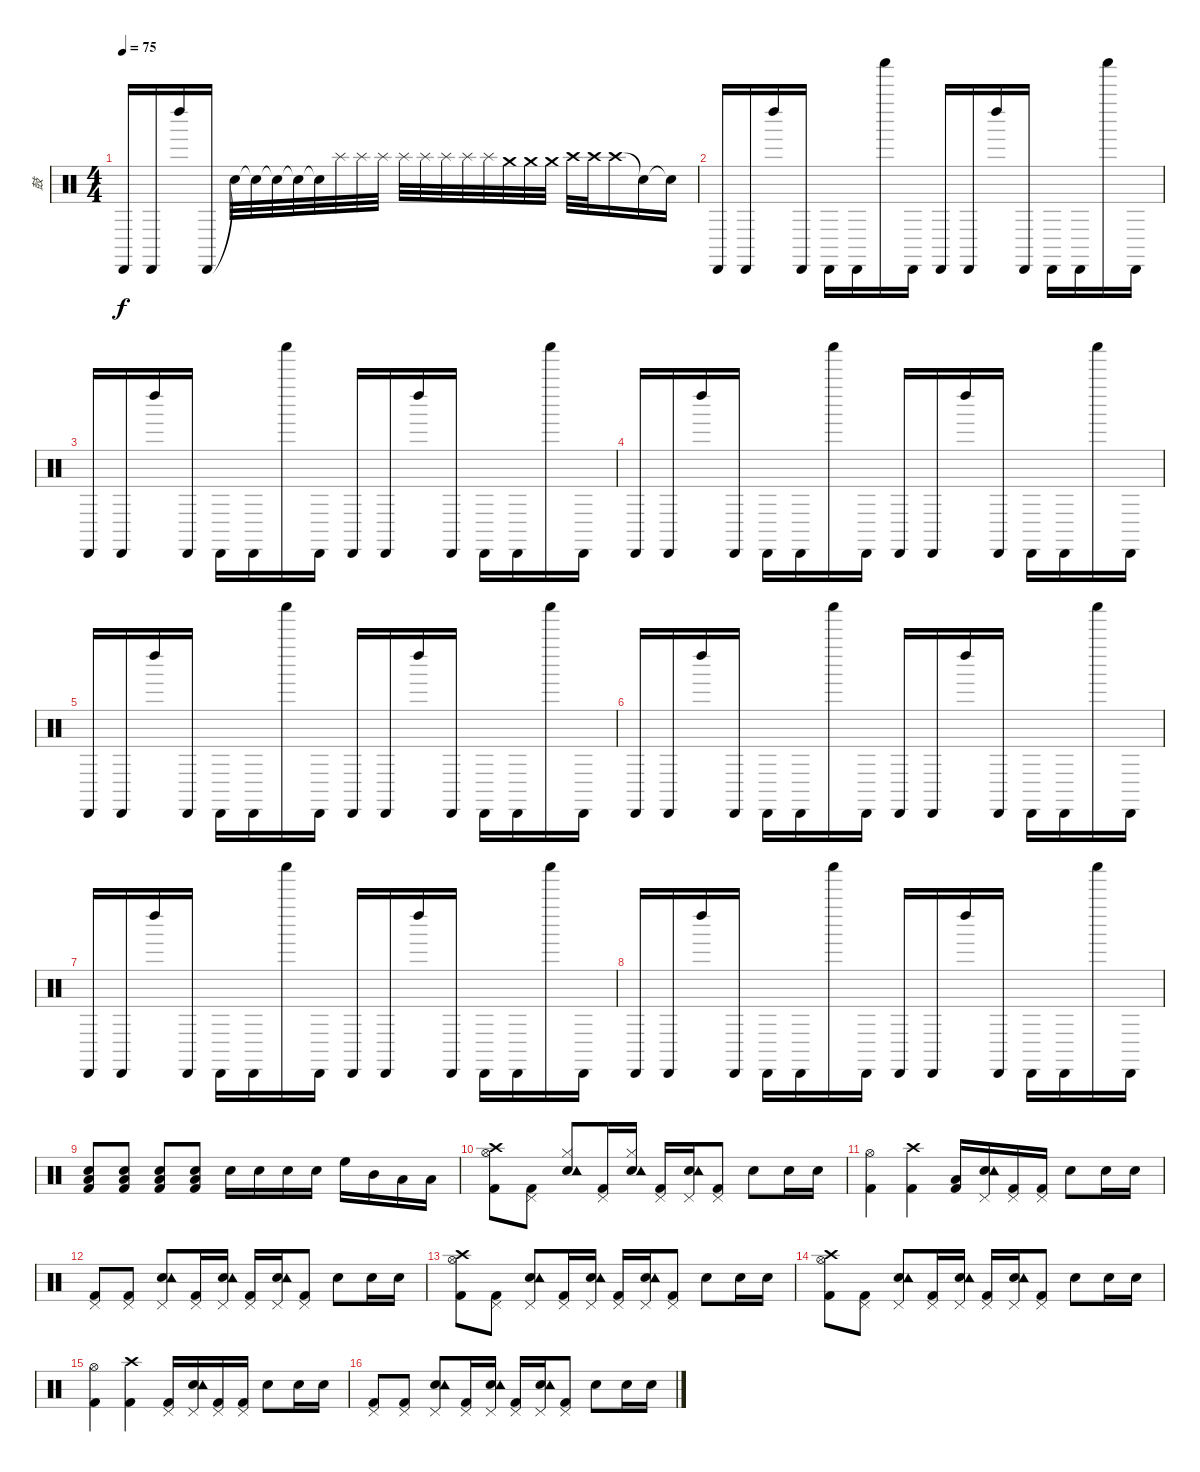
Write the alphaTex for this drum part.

\track ("鼓" "鼓") {instrument percussion}
\staff {score}
\articulation defaults
\ts (4 4)
\tempo 75
\clef neutral
\ks c "Cabasa (hit)".16{dy f} "Cabasa (hit)".16 "Left Maraca (hit)".16 "Cabasa (hit)".16 "Snare (hit)"{t}.32 "Snare (hit)"{t}.32 "Snare (hit)"{t}.32 "Snare (hit)"{t}.32 "Snare (hit)"{t}.32 "Splash (hit)".32 "Splash (hit)".32 "Splash (hit)".32 "Splash (hit)".32 "Splash (hit)".32 "Splash (hit)".32 "Splash (hit)".32 "Splash (hit)".32 "Crash medium (hit)".32 "Crash medium (hit)".32 "Crash medium (hit)".32 "Crash high (hit)".32 "Crash high (hit)".32 "Crash high (hit)".16 "Snare (hit)"{t}.16 "Snare (hit)"{t}.16
|
"Cabasa (hit)".16 "Cabasa (hit)".16 "Left Maraca (hit)".16 "Cabasa (hit)".16 "Cabasa (hit)".16 "Cabasa (hit)".16 "Shaker (hit)".16 "Cabasa (hit)".16 "Cabasa (hit)".16 "Cabasa (hit)".16 "Left Maraca (hit)".16 "Cabasa (hit)".16 "Cabasa (hit)".16 "Cabasa (hit)".16 "Shaker (hit)".16 "Cabasa (hit)".16 |
"Cabasa (hit)".16 "Cabasa (hit)".16 "Left Maraca (hit)".16 "Cabasa (hit)".16 "Cabasa (hit)".16 "Cabasa (hit)".16 "Shaker (hit)".16 "Cabasa (hit)".16 "Cabasa (hit)".16 "Cabasa (hit)".16 "Left Maraca (hit)".16 "Cabasa (hit)".16 "Cabasa (hit)".16 "Cabasa (hit)".16 "Shaker (hit)".16 "Cabasa (hit)".16 |
"Cabasa (hit)".16 "Cabasa (hit)".16 "Left Maraca (hit)".16 "Cabasa (hit)".16 "Cabasa (hit)".16 "Cabasa (hit)".16 "Shaker (hit)".16 "Cabasa (hit)".16 "Cabasa (hit)".16 "Cabasa (hit)".16 "Left Maraca (hit)".16 "Cabasa (hit)".16 "Cabasa (hit)".16 "Cabasa (hit)".16 "Shaker (hit)".16 "Cabasa (hit)".16 |
"Cabasa (hit)".16 "Cabasa (hit)".16 "Left Maraca (hit)".16 "Cabasa (hit)".16 "Cabasa (hit)".16 "Cabasa (hit)".16 "Shaker (hit)".16 "Cabasa (hit)".16 "Cabasa (hit)".16 "Cabasa (hit)".16 "Left Maraca (hit)".16 "Cabasa (hit)".16 "Cabasa (hit)".16 "Cabasa (hit)".16 "Shaker (hit)".16 "Cabasa (hit)".16 |
"Cabasa (hit)".16 "Cabasa (hit)".16 "Left Maraca (hit)".16 "Cabasa (hit)".16 "Cabasa (hit)".16 "Cabasa (hit)".16 "Shaker (hit)".16 "Cabasa (hit)".16 "Cabasa (hit)".16 "Cabasa (hit)".16 "Left Maraca (hit)".16 "Cabasa (hit)".16 "Cabasa (hit)".16 "Cabasa (hit)".16 "Shaker (hit)".16 "Cabasa (hit)".16 |
"Cabasa (hit)".16 "Cabasa (hit)".16 "Left Maraca (hit)".16 "Cabasa (hit)".16 "Cabasa (hit)".16 "Cabasa (hit)".16 "Shaker (hit)".16 "Cabasa (hit)".16 "Cabasa (hit)".16 "Cabasa (hit)".16 "Left Maraca (hit)".16 "Cabasa (hit)".16 "Cabasa (hit)".16 "Cabasa (hit)".16 "Shaker (hit)".16 "Cabasa (hit)".16 |
"Cabasa (hit)".16 "Cabasa (hit)".16 "Left Maraca (hit)".16 "Cabasa (hit)".16 "Cabasa (hit)".16 "Cabasa (hit)".16 "Shaker (hit)".16 "Cabasa (hit)".16 "Cabasa (hit)".16 "Cabasa (hit)".16 "Left Maraca (hit)".16 "Cabasa (hit)".16 "Cabasa (hit)".16 "Cabasa (hit)".16 "Shaker (hit)".16 "Cabasa (hit)".16 |
("Low Floor Tom (hit)" "Snare (hit) 2" "Kick (hit) 2").8 ("Low Floor Tom (hit)" "Snare (hit) 2" "Kick (hit) 2").8 ("Low Floor Tom (hit)" "Snare (hit) 2" "Kick (hit) 2").8 ("Low Floor Tom (hit)" "Snare (hit) 2" "Kick (hit) 2").8 "Snare (hit) 2".16 "Snare (hit) 2".16 "Snare (hit) 2".16 "Snare (hit) 2".16 "High Floor Tom (hit)".16 "Mid Tom (hit)".16 "Low Tom (hit)".16 "Low Floor Tom (hit)".16 |
("Kick (hit) 2" "Hi-Hat (open)" "Crash high (hit)").8 ("Kick (hit) 2" "Pedal Hi-Hat (hit)").8 ("Snare (hit) 2" "Hi-Hat (closed)" "Tambourine (hit)").8 ("Kick (hit) 2" "Pedal Hi-Hat (hit)").16 ("Snare (hit) 2" "Hi-Hat (closed)" "Tambourine (hit)").16 ("Kick (hit) 2" "Pedal Hi-Hat (hit)").16 ("Snare (hit) 2" "Pedal Hi-Hat (hit)" "Tambourine (hit)").16 ("Kick (hit) 2" "Pedal Hi-Hat (hit)").8 "Snare (hit) 2".8 "Snare (hit) 2".16 "Snare (hit) 2".16 |
("Hi-Hat (open)" "Kick (hit) 2").4 ("Crash high (hit)" "Kick (hit) 2").4 ("Kick (hit) 2" "Low Floor Tom (hit)").16 ("Snare (hit) 2" "Pedal Hi-Hat (hit)" "Tambourine (hit)").16 ("Kick (hit) 2" "Pedal Hi-Hat (hit)").16 ("Kick (hit) 2" "Pedal Hi-Hat (hit)").16 "Snare (hit) 2".8 "Snare (hit) 2".16 "Snare (hit) 2".16 |
("Kick (hit) 2" "Pedal Hi-Hat (hit)").8 ("Kick (hit) 2" "Pedal Hi-Hat (hit)").8 ("Snare (hit) 2" "Pedal Hi-Hat (hit)" "Tambourine (hit)").8 ("Kick (hit) 2" "Pedal Hi-Hat (hit)").16 ("Snare (hit) 2" "Pedal Hi-Hat (hit)" "Tambourine (hit)").16 ("Kick (hit) 2" "Pedal Hi-Hat (hit)").16 ("Snare (hit) 2" "Pedal Hi-Hat (hit)" "Tambourine (hit)").16 ("Kick (hit) 2" "Pedal Hi-Hat (hit)").8 "Snare (hit) 2".8 "Snare (hit) 2".16 "Snare (hit) 2".16 |
("Crash high (hit)" "Hi-Hat (open)" "Kick (hit) 2").8 ("Kick (hit) 2" "Pedal Hi-Hat (hit)").8 ("Snare (hit) 2" "Pedal Hi-Hat (hit)" "Tambourine (hit)").8 ("Kick (hit) 2" "Pedal Hi-Hat (hit)").16 ("Snare (hit) 2" "Pedal Hi-Hat (hit)" "Tambourine (hit)").16 ("Kick (hit) 2" "Pedal Hi-Hat (hit)").16 ("Snare (hit) 2" "Pedal Hi-Hat (hit)" "Tambourine (hit)").16 ("Kick (hit) 2" "Pedal Hi-Hat (hit)").8 "Snare (hit) 2".8 "Snare (hit) 2".16 "Snare (hit) 2".16 |
("Crash high (hit)" "Hi-Hat (open)" "Kick (hit) 2").8 ("Kick (hit) 2" "Pedal Hi-Hat (hit)").8 ("Snare (hit) 2" "Pedal Hi-Hat (hit)" "Tambourine (hit)").8 ("Kick (hit) 2" "Pedal Hi-Hat (hit)").16 ("Snare (hit) 2" "Pedal Hi-Hat (hit)" "Tambourine (hit)").16 ("Kick (hit) 2" "Pedal Hi-Hat (hit)").16 ("Snare (hit) 2" "Pedal Hi-Hat (hit)" "Tambourine (hit)").16 ("Kick (hit) 2" "Pedal Hi-Hat (hit)").8 "Snare (hit) 2".8 "Snare (hit) 2".16 "Snare (hit) 2".16 |
("Hi-Hat (open)" "Kick (hit) 2").4 ("Crash high (hit)" "Kick (hit) 2").4 ("Kick (hit) 2" "Pedal Hi-Hat (hit)").16 ("Snare (hit) 2" "Pedal Hi-Hat (hit)" "Tambourine (hit)").16 ("Kick (hit) 2" "Pedal Hi-Hat (hit)").16 ("Kick (hit) 2" "Pedal Hi-Hat (hit)").16 "Snare (hit) 2".8 "Snare (hit) 2".16 "Snare (hit) 2".16 |
("Kick (hit) 2" "Pedal Hi-Hat (hit)").8 ("Kick (hit) 2" "Pedal Hi-Hat (hit)").8 ("Snare (hit) 2" "Pedal Hi-Hat (hit)" "Tambourine (hit)").8 ("Kick (hit) 2" "Pedal Hi-Hat (hit)").16 ("Snare (hit) 2" "Pedal Hi-Hat (hit)" "Tambourine (hit)").16 ("Kick (hit) 2" "Pedal Hi-Hat (hit)").16 ("Snare (hit) 2" "Pedal Hi-Hat (hit)" "Tambourine (hit)").16 ("Kick (hit) 2" "Pedal Hi-Hat (hit)").8 "Snare (hit) 2".8 "Snare (hit) 2".16 "Snare (hit) 2".16
